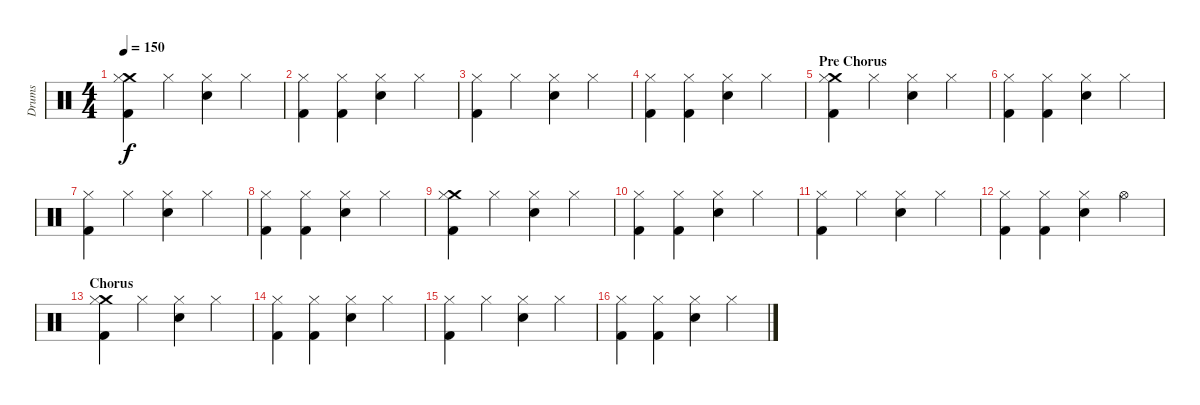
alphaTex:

\track ("Drums" "Drums") {instrument percussion}
\staff {score}
\articulation defaults
\ts (4 4)
\tempo 150
\clef neutral
\ks c
("Kick (hit) 2" "Crash medium (hit)" "Hi-Hat (closed)").4{dy f} "Hi-Hat (closed)".4 ("Hi-Hat (closed)" "Snare (hit) 2").4 "Hi-Hat (closed)".4 |
("Kick (hit) 2" "Hi-Hat (closed)").4 ("Hi-Hat (closed)" "Kick (hit) 2").4 ("Hi-Hat (closed)" "Snare (hit) 2").4 "Hi-Hat (closed)".4 |
("Kick (hit) 2" "Hi-Hat (closed)").4 "Hi-Hat (closed)".4 ("Hi-Hat (closed)" "Snare (hit) 2").4 "Hi-Hat (closed)".4 |
("Kick (hit) 2" "Hi-Hat (closed)").4 ("Hi-Hat (closed)" "Kick (hit) 2").4 ("Hi-Hat (closed)" "Snare (hit) 2").4 "Hi-Hat (closed)".4 |
\section ("" "Pre Chorus")
("Kick (hit) 2" "Crash medium (hit)" "Hi-Hat (closed)").4 "Hi-Hat (closed)".4 ("Hi-Hat (closed)" "Snare (hit) 2").4 "Hi-Hat (closed)".4 |
("Kick (hit) 2" "Hi-Hat (closed)").4 ("Hi-Hat (closed)" "Kick (hit) 2").4 ("Hi-Hat (closed)" "Snare (hit) 2").4 "Hi-Hat (closed)".4 |
("Kick (hit) 2" "Hi-Hat (closed)").4 "Hi-Hat (closed)".4 ("Hi-Hat (closed)" "Snare (hit) 2").4 "Hi-Hat (closed)".4 |
("Kick (hit) 2" "Hi-Hat (closed)").4 ("Hi-Hat (closed)" "Kick (hit) 2").4 ("Hi-Hat (closed)" "Snare (hit) 2").4 "Hi-Hat (closed)".4 |
("Kick (hit) 2" "Crash medium (hit)" "Hi-Hat (closed)").4 "Hi-Hat (closed)".4 ("Hi-Hat (closed)" "Snare (hit) 2").4 "Hi-Hat (closed)".4 |
("Kick (hit) 2" "Hi-Hat (closed)").4 ("Hi-Hat (closed)" "Kick (hit) 2").4 ("Hi-Hat (closed)" "Snare (hit) 2").4 "Hi-Hat (closed)".4 |
("Kick (hit) 2" "Hi-Hat (closed)").4 "Hi-Hat (closed)".4 ("Hi-Hat (closed)" "Snare (hit) 2").4 "Hi-Hat (closed)".4 |
("Kick (hit) 2" "Hi-Hat (closed)").4 ("Hi-Hat (closed)" "Kick (hit) 2").4 ("Hi-Hat (closed)" "Snare (hit) 2").4 "Hi-Hat (open)".4 |
\section ("" "Chorus")
("Kick (hit) 2" "Crash medium (hit)" "Hi-Hat (closed)").4 "Hi-Hat (closed)".4 ("Hi-Hat (closed)" "Snare (hit) 2").4 "Hi-Hat (closed)".4 |
("Kick (hit) 2" "Hi-Hat (closed)").4 ("Hi-Hat (closed)" "Kick (hit) 2").4 ("Hi-Hat (closed)" "Snare (hit) 2").4 "Hi-Hat (closed)".4 |
("Kick (hit) 2" "Hi-Hat (closed)").4 "Hi-Hat (closed)".4 ("Hi-Hat (closed)" "Snare (hit) 2").4 "Hi-Hat (closed)".4 |
("Kick (hit) 2" "Hi-Hat (closed)").4 ("Hi-Hat (closed)" "Kick (hit) 2").4 ("Hi-Hat (closed)" "Snare (hit) 2").4 "Hi-Hat (closed)".4
